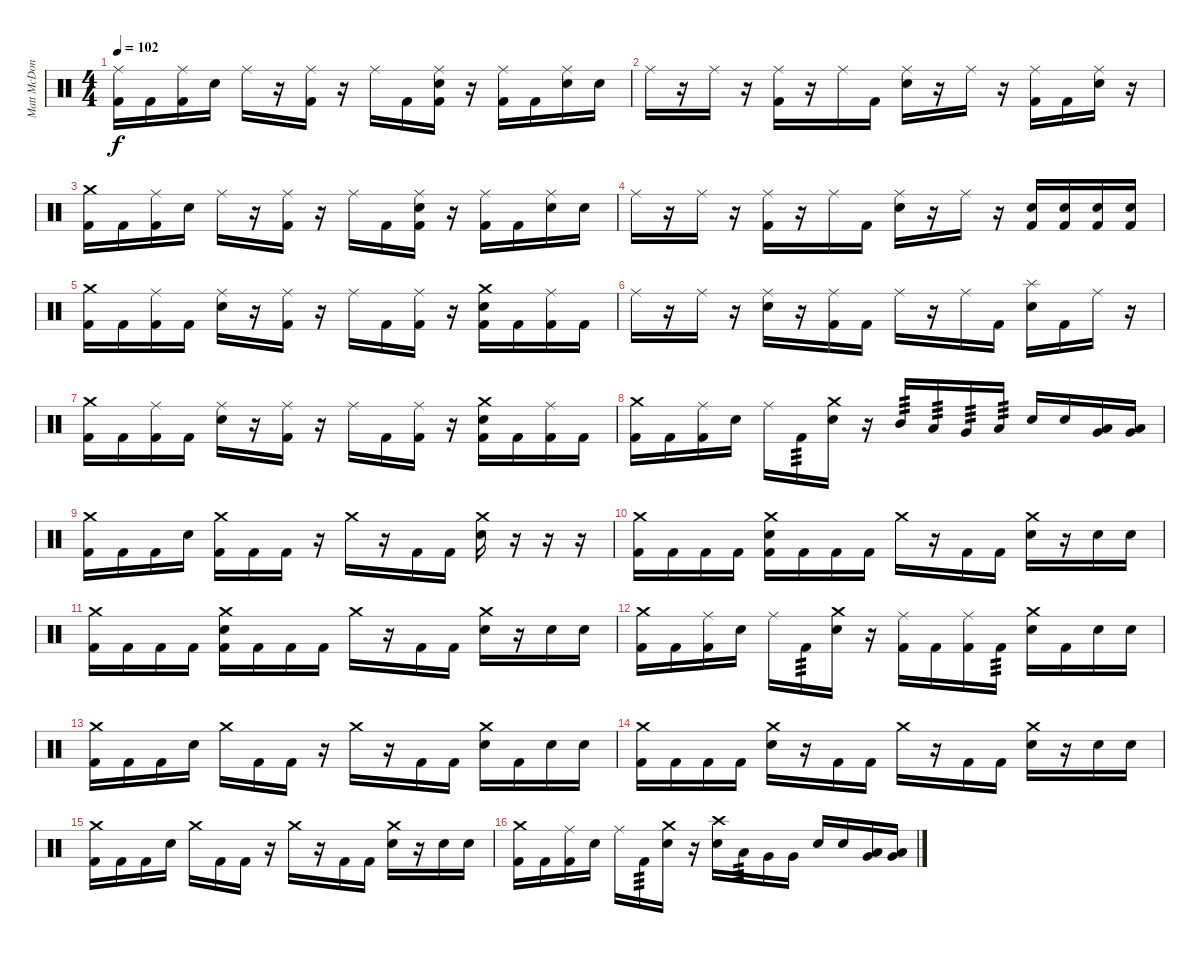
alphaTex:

\track ("Matt McDonough" "Matt McDon") {instrument percussion}
\staff {score}
\articulation defaults
\ts (4 4)
\tempo 102
\clef neutral
\ks c
("Ride (middle)" "Kick (hit) 2").16{dy f} "Kick (hit) 2".16 ("Ride (middle)" "Kick (hit) 2").16 "Electric Snare (hit)".16 "Ride (middle)".16 r.16 ("Ride (middle)" "Kick (hit) 2").16 r.16 "Ride (middle)".16 "Kick (hit) 2".16 ("Ride (middle)" "Electric Snare (hit)" "Kick (hit) 2").16 r.16 ("Ride (middle)" "Kick (hit) 2").16 "Kick (hit) 2".16 ("Ride (middle)" "Electric Snare (hit)").16 "Electric Snare (hit)".16 |
"Ride (middle)".16 r.16 "Ride (middle)".16 r.16 ("Ride (middle)" "Kick (hit) 2").16 r.16 "Ride (middle)".16 "Kick (hit) 2".16 ("Ride (middle)" "Electric Snare (hit)").16 r.16 "Ride (middle)".16 r.16 ("Ride (middle)" "Kick (hit) 2").16 "Kick (hit) 2".16 ("Ride (middle)" "Electric Snare (hit)").16 r.16 |
("Crash medium (hit)" "Kick (hit) 2").16 "Kick (hit) 2".16 ("Ride (middle)" "Kick (hit) 2").16 "Electric Snare (hit)".16 "Ride (middle)".16 r.16 ("Ride (middle)" "Kick (hit) 2").16 r.16 "Ride (middle)".16 "Kick (hit) 2".16 ("Ride (middle)" "Electric Snare (hit)" "Kick (hit) 2").16 r.16 ("Ride (middle)" "Kick (hit) 2").16 "Kick (hit) 2".16 ("Ride (middle)" "Electric Snare (hit)").16 "Electric Snare (hit)".16 |
"Ride (middle)".16 r.16 "Ride (middle)".16 r.16 ("Ride (middle)" "Kick (hit) 2").16 r.16 "Ride (middle)".16 "Kick (hit) 2".16 ("Ride (middle)" "Electric Snare (hit)").16 r.16 "Ride (middle)".16 r.16 ("Electric Snare (hit)" "Kick (hit) 2").16 ("Electric Snare (hit)" "Kick (hit) 2").16 ("Electric Snare (hit)" "Kick (hit) 2").16 ("Electric Snare (hit)" "Kick (hit) 2").16 |
("Crash medium (hit)" "Kick (hit) 2").16 "Kick (hit) 2".16 ("Ride (middle)" "Kick (hit) 2").16 "Kick (hit) 2".16 ("Ride (middle)" "Electric Snare (hit)").16 r.16 ("Ride (middle)" "Kick (hit) 2").16 r.16 "Ride (middle)".16 "Kick (hit) 2".16 ("Ride (middle)" "Kick (hit) 2").16 r.16 ("Crash medium (hit)" "Electric Snare (hit)" "Kick (hit) 2").16 "Kick (hit) 2".16 ("Ride (middle)" "Kick (hit) 2").16 "Kick (hit) 2".16 |
"Ride (middle)".16 r.16 "Ride (middle)".16 r.16 ("Ride (middle)" "Electric Snare (hit)").16 r.16 ("Ride (middle)" "Kick (hit) 2").16 "Kick (hit) 2".16 "Ride (middle)".16 r.16 "Ride (middle)".16 "Kick (hit) 2".16 ("Splash (hit)" "Electric Snare (hit)").16 "Kick (hit) 2".16 "Ride (middle)".16 r.16 |
("Crash medium (hit)" "Kick (hit) 2").16 "Kick (hit) 2".16 ("Ride (middle)" "Kick (hit) 2").16 "Kick (hit) 2".16 ("Ride (middle)" "Electric Snare (hit)").16 r.16 ("Ride (middle)" "Kick (hit) 2").16 r.16 "Ride (middle)".16 "Kick (hit) 2".16 ("Ride (middle)" "Kick (hit) 2").16 r.16 ("Crash medium (hit)" "Electric Snare (hit)" "Kick (hit) 2").16 "Kick (hit) 2".16 ("Ride (middle)" "Kick (hit) 2").16 "Kick (hit) 2".16 |
("Crash medium (hit)" "Kick (hit) 2").16 "Kick (hit) 2".16 ("Ride (middle)" "Kick (hit) 2").16 "Electric Snare (hit)".16 "Ride (middle)".16 "Kick (hit) 2".16{tp 3} ("Crash medium (hit)" "Electric Snare (hit)").16 r.16 "Mid Tom (hit)".16{tp 3} "Low Tom (hit)".16{tp 3} "Very Low Tom (hit)".16{tp 3} "Low Floor Tom (hit)".16{tp 3} "Electric Snare (hit)".16 "Electric Snare (hit)".16 ("Low Floor Tom (hit)" "Very Low Tom (hit)").16 ("Low Floor Tom (hit)" "Very Low Tom (hit)").16 |
("Crash medium (hit)" "Kick (hit) 2").16 "Kick (hit) 2".16 "Kick (hit) 2".16 "Electric Snare (hit)".16 ("Crash medium (hit)" "Kick (hit) 2").16 "Kick (hit) 2".16 "Kick (hit) 2".16 r.16 "Crash medium (hit)".16 r.16 "Kick (hit) 2".16 "Kick (hit) 2".16 ("Crash medium (hit)" "Electric Snare (hit)").16 r.16 r.16 r.16 |
("Crash medium (hit)" "Kick (hit) 2").16 "Kick (hit) 2".16 "Kick (hit) 2".16 "Kick (hit) 2".16 ("Crash medium (hit)" "Electric Snare (hit)" "Kick (hit) 2").16 "Kick (hit) 2".16 "Kick (hit) 2".16 "Kick (hit) 2".16 "Crash medium (hit)".16 r.16 "Kick (hit) 2".16 "Kick (hit) 2".16 ("Crash medium (hit)" "Electric Snare (hit)").16 r.16 "Electric Snare (hit)".16 "Electric Snare (hit)".16 |
("Crash medium (hit)" "Kick (hit) 2").16 "Kick (hit) 2".16 "Kick (hit) 2".16 "Kick (hit) 2".16 ("Crash medium (hit)" "Electric Snare (hit)" "Kick (hit) 2").16 "Kick (hit) 2".16 "Kick (hit) 2".16 "Kick (hit) 2".16 "Crash medium (hit)".16 r.16 "Kick (hit) 2".16 "Kick (hit) 2".16 ("Crash medium (hit)" "Electric Snare (hit)").16 r.16 "Electric Snare (hit)".16 "Electric Snare (hit)".16 |
("Crash medium (hit)" "Kick (hit) 2").16 "Kick (hit) 2".16 ("Ride (middle)" "Kick (hit) 2").16 "Electric Snare (hit)".16 "Ride (middle)".16 "Kick (hit) 2".16{tp 3} ("Crash medium (hit)" "Electric Snare (hit)").16 r.16 ("Ride (middle)" "Kick (hit) 2").16 "Kick (hit) 2".16 ("Ride (middle)" "Kick (hit) 2").16 "Kick (hit) 2".16{tp 3} ("Crash medium (hit)" "Electric Snare (hit)").16 "Kick (hit) 2".16 "Electric Snare (hit)".16 "Electric Snare (hit)".16 |
("Crash medium (hit)" "Kick (hit) 2").16 "Kick (hit) 2".16 "Kick (hit) 2".16 "Electric Snare (hit)".16 "Crash medium (hit)".16 "Kick (hit) 2".16 "Kick (hit) 2".16 r.16 "Crash medium (hit)".16 r.16 "Kick (hit) 2".16 "Kick (hit) 2".16 ("Crash medium (hit)" "Electric Snare (hit)").16 "Kick (hit) 2".16 "Electric Snare (hit)".16 "Electric Snare (hit)".16 |
("Crash medium (hit)" "Kick (hit) 2").16 "Kick (hit) 2".16 "Kick (hit) 2".16 "Kick (hit) 2".16 ("Crash medium (hit)" "Electric Snare (hit)").16 r.16 "Kick (hit) 2".16 "Kick (hit) 2".16 "Crash medium (hit)".16 r.16 "Kick (hit) 2".16 "Kick (hit) 2".16 ("Crash medium (hit)" "Electric Snare (hit)").16 r.16 "Electric Snare (hit)".16 "Electric Snare (hit)".16 |
("Crash medium (hit)" "Kick (hit) 2").16 "Kick (hit) 2".16 "Kick (hit) 2".16 "Electric Snare (hit)".16 "Crash medium (hit)".16 "Kick (hit) 2".16 "Kick (hit) 2".16 r.16 "Crash medium (hit)".16 r.16 "Kick (hit) 2".16 "Kick (hit) 2".16 ("Crash medium (hit)" "Electric Snare (hit)").16 r.16 "Electric Snare (hit)".16 "Electric Snare (hit)".16 |
("Crash medium (hit)" "Kick (hit) 2").16 "Kick (hit) 2".16 ("Ride (middle)" "Kick (hit) 2").16 "Electric Snare (hit)".16 "Ride (middle)".16 "Kick (hit) 2".16{tp 3} ("Crash medium (hit)" "Electric Snare (hit)").16 r.16 ("Crash high (hit)" "Electric Snare (hit)").16 "Low Tom (hit)".16{tp 3} "Very Low Tom (hit)".16 "Very Low Tom (hit)".16 "Electric Snare (hit)".16 "Electric Snare (hit)".16 ("Very Low Tom (hit)" "Low Floor Tom (hit)").16 ("Very Low Tom (hit)" "Low Floor Tom (hit)").16
